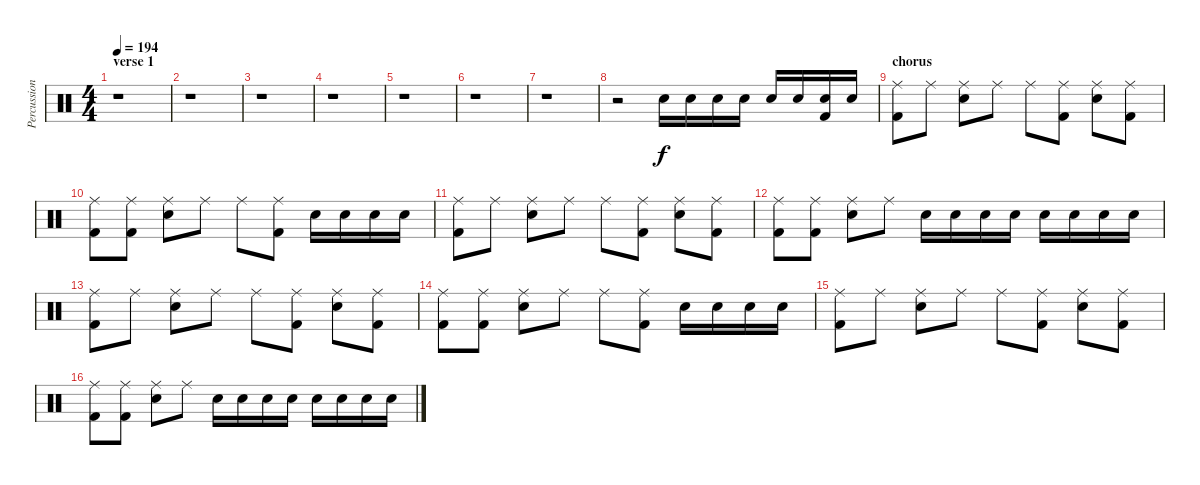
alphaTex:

\track ("Percussion" "Percussion") {instrument percussion}
\staff {score}
\articulation defaults
\ts (4 4)
\section ("" "verse 1")
\tempo 194
\clef neutral
\ks c
r.1{dy f} |
r.1 |
r.1 |
r.1 |
r.1 |
r.1 |
r.1 |
r.2 "Snare (hit) 2".16 "Snare (hit) 2".16 "Snare (hit) 2".16 "Snare (hit) 2".16 "Snare (hit) 2".16 "Snare (hit) 2".16 ("Snare (hit) 2" "Kick (hit) 2").16 "Snare (hit) 2".16 |
\section ("" "chorus")
("Ride (middle)" "Kick (hit) 2").8 "Ride (middle)".8 ("Ride (middle)" "Snare (hit) 2").8 "Ride (middle)".8 "Ride (middle)".8 ("Ride (middle)" "Kick (hit) 2").8 ("Ride (middle)" "Snare (hit) 2").8 ("Ride (middle)" "Kick (hit) 2").8 |
("Ride (middle)" "Kick (hit) 2").8 ("Ride (middle)" "Kick (hit) 2").8 ("Ride (middle)" "Snare (hit) 2").8 "Ride (middle)".8 "Ride (middle)".8 ("Ride (middle)" "Kick (hit) 2").8 "Snare (hit) 2".16 "Snare (hit) 2".16 "Snare (hit) 2".16 "Snare (hit) 2".16 |
("Ride (middle)" "Kick (hit) 2").8 "Ride (middle)".8 ("Ride (middle)" "Snare (hit) 2").8 "Ride (middle)".8 "Ride (middle)".8 ("Ride (middle)" "Kick (hit) 2").8 ("Ride (middle)" "Snare (hit) 2").8 ("Ride (middle)" "Kick (hit) 2").8 |
("Ride (middle)" "Kick (hit) 2").8 ("Ride (middle)" "Kick (hit) 2").8 ("Ride (middle)" "Snare (hit) 2").8 "Ride (middle)".8 "Snare (hit) 2".16 "Snare (hit) 2".16 "Snare (hit) 2".16 "Snare (hit) 2".16 "Snare (hit) 2".16 "Snare (hit) 2".16 "Snare (hit) 2".16 "Snare (hit) 2".16 |
("Ride (middle)" "Kick (hit) 2").8 "Ride (middle)".8 ("Ride (middle)" "Snare (hit) 2").8 "Ride (middle)".8 "Ride (middle)".8 ("Ride (middle)" "Kick (hit) 2").8 ("Ride (middle)" "Snare (hit) 2").8 ("Ride (middle)" "Kick (hit) 2").8 |
("Ride (middle)" "Kick (hit) 2").8 ("Ride (middle)" "Kick (hit) 2").8 ("Ride (middle)" "Snare (hit) 2").8 "Ride (middle)".8 "Ride (middle)".8 ("Ride (middle)" "Kick (hit) 2").8 "Snare (hit) 2".16 "Snare (hit) 2".16 "Snare (hit) 2".16 "Snare (hit) 2".16 |
("Ride (middle)" "Kick (hit) 2").8 "Ride (middle)".8 ("Ride (middle)" "Snare (hit) 2").8 "Ride (middle)".8 "Ride (middle)".8 ("Ride (middle)" "Kick (hit) 2").8 ("Ride (middle)" "Snare (hit) 2").8 ("Ride (middle)" "Kick (hit) 2").8 |
("Ride (middle)" "Kick (hit) 2").8 ("Ride (middle)" "Kick (hit) 2").8 ("Ride (middle)" "Snare (hit) 2").8 "Ride (middle)".8 "Snare (hit) 2".16 "Snare (hit) 2".16 "Snare (hit) 2".16 "Snare (hit) 2".16 "Snare (hit) 2".16 "Snare (hit) 2".16 "Snare (hit) 2".16 "Snare (hit) 2".16
